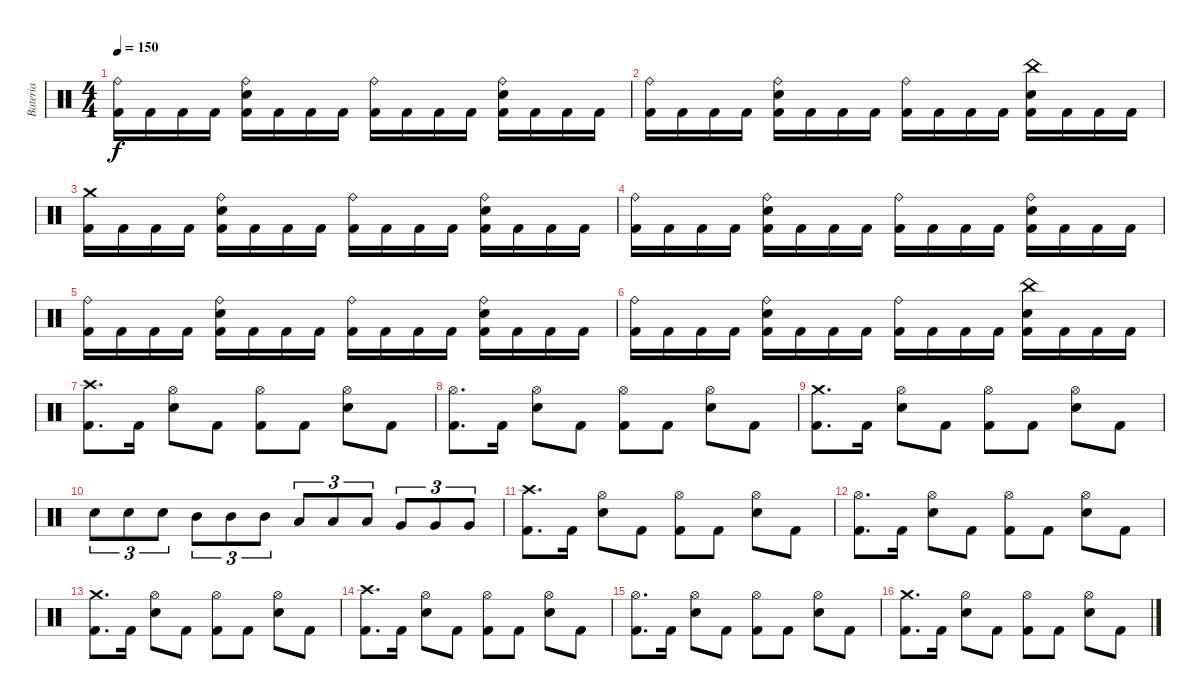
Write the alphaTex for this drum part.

\track ("Bateria" "Bateria") {instrument percussion}
\staff {score}
\articulation defaults
\ts (4 4)
\tempo 150
\clef neutral
\ks c
("Ride (bell)" "Kick (hit) 2").16{dy f} "Kick (hit) 2".16 "Kick (hit) 2".16 "Kick (hit) 2".16 ("Ride (bell)" "Snare (hit) 2" "Kick (hit) 2").16 "Kick (hit) 2".16 "Kick (hit) 2".16 "Kick (hit) 2".16 ("Ride (bell)" "Kick (hit) 2").16 "Kick (hit) 2".16 "Kick (hit) 2".16 "Kick (hit) 2".16 ("Ride (bell)" "Snare (hit) 2" "Kick (hit) 2").16 "Kick (hit) 2".16 "Kick (hit) 2".16 "Kick (hit) 2".16 |
("Ride (bell)" "Kick (hit) 2").16 "Kick (hit) 2".16 "Kick (hit) 2".16 "Kick (hit) 2".16 ("Ride (bell)" "Snare (hit) 2" "Kick (hit) 2").16 "Kick (hit) 2".16 "Kick (hit) 2".16 "Kick (hit) 2".16 ("Ride (bell)" "Kick (hit) 2").16 "Kick (hit) 2".16 "Kick (hit) 2".16 "Kick (hit) 2".16 ("China (hit)" "Snare (hit) 2" "Kick (hit) 2").16 "Kick (hit) 2".16 "Kick (hit) 2".16 "Kick (hit) 2".16 |
("Crash medium (hit)" "Kick (hit) 2").16 "Kick (hit) 2".16 "Kick (hit) 2".16 "Kick (hit) 2".16 ("Ride (bell)" "Snare (hit) 2" "Kick (hit) 2").16 "Kick (hit) 2".16 "Kick (hit) 2".16 "Kick (hit) 2".16 ("Ride (bell)" "Kick (hit) 2").16 "Kick (hit) 2".16 "Kick (hit) 2".16 "Kick (hit) 2".16 ("Ride (bell)" "Snare (hit) 2" "Kick (hit) 2").16 "Kick (hit) 2".16 "Kick (hit) 2".16 "Kick (hit) 2".16 |
("Ride (bell)" "Kick (hit) 2").16 "Kick (hit) 2".16 "Kick (hit) 2".16 "Kick (hit) 2".16 ("Ride (bell)" "Snare (hit) 2" "Kick (hit) 2").16 "Kick (hit) 2".16 "Kick (hit) 2".16 "Kick (hit) 2".16 ("Ride (bell)" "Kick (hit) 2").16 "Kick (hit) 2".16 "Kick (hit) 2".16 "Kick (hit) 2".16 ("Ride (bell)" "Snare (hit) 2" "Kick (hit) 2").16 "Kick (hit) 2".16 "Kick (hit) 2".16 "Kick (hit) 2".16 |
("Ride (bell)" "Kick (hit) 2").16 "Kick (hit) 2".16 "Kick (hit) 2".16 "Kick (hit) 2".16 ("Ride (bell)" "Snare (hit) 2" "Kick (hit) 2").16 "Kick (hit) 2".16 "Kick (hit) 2".16 "Kick (hit) 2".16 ("Ride (bell)" "Kick (hit) 2").16 "Kick (hit) 2".16 "Kick (hit) 2".16 "Kick (hit) 2".16 ("Ride (bell)" "Snare (hit) 2" "Kick (hit) 2").16 "Kick (hit) 2".16 "Kick (hit) 2".16 "Kick (hit) 2".16 |
("Ride (bell)" "Kick (hit) 2").16 "Kick (hit) 2".16 "Kick (hit) 2".16 "Kick (hit) 2".16 ("Ride (bell)" "Snare (hit) 2" "Kick (hit) 2").16 "Kick (hit) 2".16 "Kick (hit) 2".16 "Kick (hit) 2".16 ("Ride (bell)" "Kick (hit) 2").16 "Kick (hit) 2".16 "Kick (hit) 2".16 "Kick (hit) 2".16 ("China (hit)" "Snare (hit) 2" "Kick (hit) 2").16 "Kick (hit) 2".16 "Kick (hit) 2".16 "Kick (hit) 2".16 |
("Crash high (hit)" "Kick (hit) 2").8{d} "Kick (hit) 2".16 ("Hi-Hat (open)" "Snare (hit) 2").8 "Kick (hit) 2".8 ("Hi-Hat (open)" "Kick (hit) 2").8 "Kick (hit) 2".8 ("Hi-Hat (open)" "Snare (hit) 2").8 "Kick (hit) 2".8 |
("Hi-Hat (open)" "Kick (hit) 2").8{d} "Kick (hit) 2".16 ("Hi-Hat (open)" "Snare (hit) 2").8 "Kick (hit) 2".8 ("Hi-Hat (open)" "Kick (hit) 2").8 "Kick (hit) 2".8 ("Hi-Hat (open)" "Snare (hit) 2").8 "Kick (hit) 2".8 |
("Crash medium (hit)" "Kick (hit) 2").8{d} "Kick (hit) 2".16 ("Hi-Hat (open)" "Snare (hit) 2").8 "Kick (hit) 2".8 ("Hi-Hat (open)" "Kick (hit) 2").8 "Kick (hit) 2".8 ("Hi-Hat (open)" "Snare (hit) 2").8 "Kick (hit) 2".8 |
"Snare (hit) 2".8{tu (3 2)} "Snare (hit) 2".8{tu (3 2)} "Snare (hit) 2".8{tu (3 2)} "Mid Tom (hit)".8{tu (3 2)} "Mid Tom (hit)".8{tu (3 2)} "Mid Tom (hit)".8{tu (3 2)} "Low Tom (hit)".8{tu (3 2)} "Low Tom (hit)".8{tu (3 2)} "Low Tom (hit)".8{tu (3 2)} "Very Low Tom (hit)".8{tu (3 2)} "Very Low Tom (hit)".8{tu (3 2)} "Very Low Tom (hit)".8{tu (3 2)} |
("Crash high (hit)" "Kick (hit) 2").8{d} "Kick (hit) 2".16 ("Hi-Hat (open)" "Snare (hit) 2").8 "Kick (hit) 2".8 ("Hi-Hat (open)" "Kick (hit) 2").8 "Kick (hit) 2".8 ("Hi-Hat (open)" "Snare (hit) 2").8 "Kick (hit) 2".8 |
("Hi-Hat (open)" "Kick (hit) 2").8{d} "Kick (hit) 2".16 ("Hi-Hat (open)" "Snare (hit) 2").8 "Kick (hit) 2".8 ("Hi-Hat (open)" "Kick (hit) 2").8 "Kick (hit) 2".8 ("Hi-Hat (open)" "Snare (hit) 2").8 "Kick (hit) 2".8 |
("Crash medium (hit)" "Kick (hit) 2").8{d} "Kick (hit) 2".16 ("Hi-Hat (open)" "Snare (hit) 2").8 "Kick (hit) 2".8 ("Hi-Hat (open)" "Kick (hit) 2").8 "Kick (hit) 2".8 ("Hi-Hat (open)" "Snare (hit) 2").8 "Kick (hit) 2".8 |
("Crash high (hit)" "Kick (hit) 2").8{d} "Kick (hit) 2".16 ("Hi-Hat (open)" "Snare (hit) 2").8 "Kick (hit) 2".8 ("Hi-Hat (open)" "Kick (hit) 2").8 "Kick (hit) 2".8 ("Hi-Hat (open)" "Snare (hit) 2").8 "Kick (hit) 2".8 |
("Hi-Hat (open)" "Kick (hit) 2").8{d} "Kick (hit) 2".16 ("Hi-Hat (open)" "Snare (hit) 2").8 "Kick (hit) 2".8 ("Hi-Hat (open)" "Kick (hit) 2").8 "Kick (hit) 2".8 ("Hi-Hat (open)" "Snare (hit) 2").8 "Kick (hit) 2".8 |
("Crash medium (hit)" "Kick (hit) 2").8{d} "Kick (hit) 2".16 ("Hi-Hat (open)" "Snare (hit) 2").8 "Kick (hit) 2".8 ("Hi-Hat (open)" "Kick (hit) 2").8 "Kick (hit) 2".8 ("Hi-Hat (open)" "Snare (hit) 2").8 "Kick (hit) 2".8
